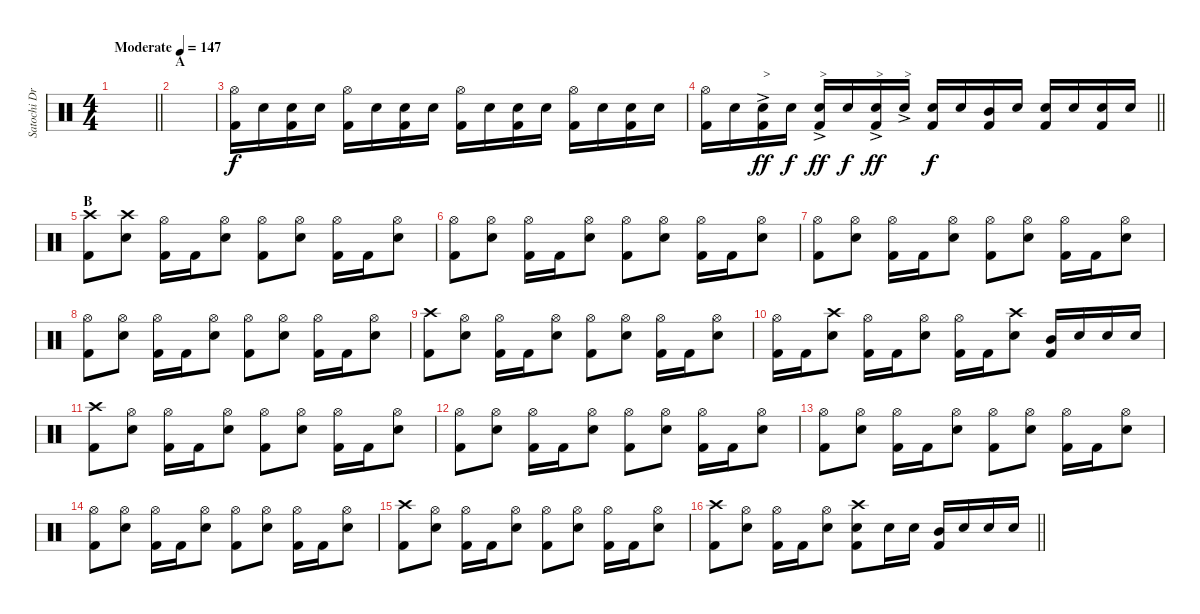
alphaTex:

\track ("Satochi Drums" "Satochi Dr") {instrument percussion}
\staff {score}
\articulation defaults
\ts (4 4)
\tempo (147 "Moderate")
\clef neutral
\barLineRight lightlight
\ks c
|
\section ("" "A")
|
("Hi-Hat (open)" "Kick (hit) 2").16 "Snare (hit) 2".16 ("Snare (hit) 2" "Kick (hit) 2").16 "Snare (hit) 2".16 ("Hi-Hat (open)" "Kick (hit) 2").16 "Snare (hit) 2".16 ("Snare (hit) 2" "Kick (hit) 2").16 "Snare (hit) 2".16 ("Hi-Hat (open)" "Kick (hit) 2").16 "Snare (hit) 2".16 ("Snare (hit) 2" "Kick (hit) 2").16 "Snare (hit) 2".16 ("Hi-Hat (open)" "Kick (hit) 2").16 "Snare (hit) 2".16 ("Snare (hit) 2" "Kick (hit) 2").16 "Snare (hit) 2".16 |
\barLineRight lightlight
("Hi-Hat (open)" "Kick (hit) 2").16 "Snare (hit) 2".16 ("Snare (hit) 2"{ac} "Kick (hit) 2").16{txt ">" dy ff} "Snare (hit) 2".16{dy f} ("Snare (hit) 2"{ac} "Kick (hit) 2").16{txt ">" dy ff} "Snare (hit) 2".16{dy f} ("Snare (hit) 2"{ac} "Kick (hit) 2").16{txt ">" dy ff} "Snare (hit) 2"{ac}.16{txt ">"} ("Snare (hit) 2" "Kick (hit) 2").16{dy f} "Snare (hit) 2".16 ("Mid Tom (hit)" "Kick (hit) 2").16 "Snare (hit) 2".16 ("Snare (hit) 2" "Kick (hit) 2").16 "Snare (hit) 2".16 ("Snare (hit) 2" "Kick (hit) 2").16 "Snare (hit) 2".16 |
\section ("" "B")
("Crash high (hit)" "Kick (hit) 2").8 ("Crash high (hit)" "Snare (hit) 2").8 ("Hi-Hat (open)" "Kick (hit) 2").16 "Kick (hit) 2".16 ("Hi-Hat (open)" "Snare (hit) 2").8 ("Hi-Hat (open)" "Kick (hit) 2").8 ("Hi-Hat (open)" "Snare (hit) 2").8 ("Hi-Hat (open)" "Kick (hit) 2").16 "Kick (hit) 2".16 ("Hi-Hat (open)" "Snare (hit) 2").8 |
("Hi-Hat (open)" "Kick (hit) 2").8 ("Hi-Hat (open)" "Snare (hit) 2").8 ("Hi-Hat (open)" "Kick (hit) 2").16 "Kick (hit) 2".16 ("Hi-Hat (open)" "Snare (hit) 2").8 ("Hi-Hat (open)" "Kick (hit) 2").8 ("Hi-Hat (open)" "Snare (hit) 2").8 ("Hi-Hat (open)" "Kick (hit) 2").16 "Kick (hit) 2".16 ("Hi-Hat (open)" "Snare (hit) 2").8 |
("Hi-Hat (open)" "Kick (hit) 2").8 ("Hi-Hat (open)" "Snare (hit) 2").8 ("Hi-Hat (open)" "Kick (hit) 2").16 "Kick (hit) 2".16 ("Hi-Hat (open)" "Snare (hit) 2").8 ("Hi-Hat (open)" "Kick (hit) 2").8 ("Hi-Hat (open)" "Snare (hit) 2").8 ("Hi-Hat (open)" "Kick (hit) 2").16 "Kick (hit) 2".16 ("Hi-Hat (open)" "Snare (hit) 2").8 |
("Hi-Hat (open)" "Kick (hit) 2").8 ("Hi-Hat (open)" "Snare (hit) 2").8 ("Hi-Hat (open)" "Kick (hit) 2").16 "Kick (hit) 2".16 ("Hi-Hat (open)" "Snare (hit) 2").8 ("Hi-Hat (open)" "Kick (hit) 2").8 ("Hi-Hat (open)" "Snare (hit) 2").8 ("Hi-Hat (open)" "Kick (hit) 2").16 "Kick (hit) 2".16 ("Hi-Hat (open)" "Snare (hit) 2").8 |
("Crash high (hit)" "Kick (hit) 2").8 ("Hi-Hat (open)" "Snare (hit) 2").8 ("Hi-Hat (open)" "Kick (hit) 2").16 "Kick (hit) 2".16 ("Hi-Hat (open)" "Snare (hit) 2").8 ("Hi-Hat (open)" "Kick (hit) 2").8 ("Hi-Hat (open)" "Snare (hit) 2").8 ("Hi-Hat (open)" "Kick (hit) 2").16 "Kick (hit) 2".16 ("Hi-Hat (open)" "Snare (hit) 2").8 |
("Hi-Hat (open)" "Kick (hit) 2").16 "Kick (hit) 2".16 ("Crash high (hit)" "Snare (hit) 2").8 ("Hi-Hat (open)" "Kick (hit) 2").16 "Kick (hit) 2".16 ("Hi-Hat (open)" "Snare (hit) 2").8 ("Hi-Hat (open)" "Kick (hit) 2").16 "Kick (hit) 2".16 ("Crash high (hit)" "Snare (hit) 2").8 ("Mid Tom (hit)" "Kick (hit) 2").16 "Snare (hit) 2".16 "Snare (hit) 2".16 "Snare (hit) 2".16 |
("Crash high (hit)" "Kick (hit) 2").8 ("Hi-Hat (open)" "Snare (hit) 2").8 ("Hi-Hat (open)" "Kick (hit) 2").16 "Kick (hit) 2".16 ("Hi-Hat (open)" "Snare (hit) 2").8 ("Hi-Hat (open)" "Kick (hit) 2").8 ("Hi-Hat (open)" "Snare (hit) 2").8 ("Hi-Hat (open)" "Kick (hit) 2").16 "Kick (hit) 2".16 ("Hi-Hat (open)" "Snare (hit) 2").8 |
("Hi-Hat (open)" "Kick (hit) 2").8 ("Hi-Hat (open)" "Snare (hit) 2").8 ("Hi-Hat (open)" "Kick (hit) 2").16 "Kick (hit) 2".16 ("Hi-Hat (open)" "Snare (hit) 2").8 ("Hi-Hat (open)" "Kick (hit) 2").8 ("Hi-Hat (open)" "Snare (hit) 2").8 ("Hi-Hat (open)" "Kick (hit) 2").16 "Kick (hit) 2".16 ("Hi-Hat (open)" "Snare (hit) 2").8 |
("Hi-Hat (open)" "Kick (hit) 2").8 ("Hi-Hat (open)" "Snare (hit) 2").8 ("Hi-Hat (open)" "Kick (hit) 2").16 "Kick (hit) 2".16 ("Hi-Hat (open)" "Snare (hit) 2").8 ("Hi-Hat (open)" "Kick (hit) 2").8 ("Hi-Hat (open)" "Snare (hit) 2").8 ("Hi-Hat (open)" "Kick (hit) 2").16 "Kick (hit) 2".16 ("Hi-Hat (open)" "Snare (hit) 2").8 |
("Hi-Hat (open)" "Kick (hit) 2").8 ("Hi-Hat (open)" "Snare (hit) 2").8 ("Hi-Hat (open)" "Kick (hit) 2").16 "Kick (hit) 2".16 ("Hi-Hat (open)" "Snare (hit) 2").8 ("Hi-Hat (open)" "Kick (hit) 2").8 ("Hi-Hat (open)" "Snare (hit) 2").8 ("Hi-Hat (open)" "Kick (hit) 2").16 "Kick (hit) 2".16 ("Hi-Hat (open)" "Snare (hit) 2").8 |
("Crash high (hit)" "Kick (hit) 2").8 ("Hi-Hat (open)" "Snare (hit) 2").8 ("Hi-Hat (open)" "Kick (hit) 2").16 "Kick (hit) 2".16 ("Hi-Hat (open)" "Snare (hit) 2").8 ("Hi-Hat (open)" "Kick (hit) 2").8 ("Hi-Hat (open)" "Snare (hit) 2").8 ("Hi-Hat (open)" "Kick (hit) 2").16 "Kick (hit) 2".16 ("Hi-Hat (open)" "Snare (hit) 2").8 |
\barLineRight lightlight
("Crash high (hit)" "Kick (hit) 2").8 ("Hi-Hat (open)" "Snare (hit) 2").8 ("Hi-Hat (open)" "Kick (hit) 2").16 "Kick (hit) 2".16 ("Hi-Hat (open)" "Snare (hit) 2").8 ("Crash high (hit)" "Snare (hit) 2" "Kick (hit) 2").8 "Snare (hit) 2".16 "Snare (hit) 2".16 ("Mid Tom (hit)" "Kick (hit) 2").16 "Snare (hit) 2".16 "Snare (hit) 2".16 "Snare (hit) 2".16
